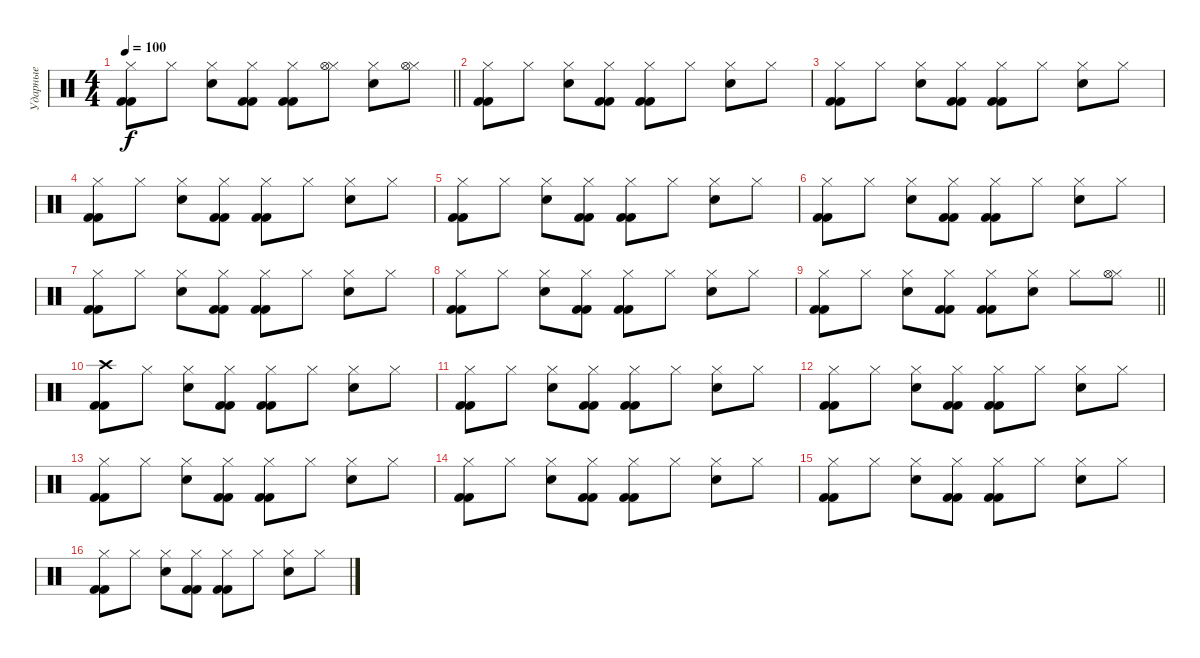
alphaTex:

\track ("Ударные" "Ударные") {instrument percussion}
\staff {score}
\articulation defaults
\ts (4 4)
\tempo 100
\clef neutral
\barLineRight lightlight
\ks c
("Hi-Hat (closed)" "Kick (hit) 2" "Kick (hit) 2").8{dy f} "Hi-Hat (closed)".8 ("Hi-Hat (closed)" "Snare (hit) 2").8 ("Hi-Hat (closed)" "Kick (hit) 2" "Kick (hit) 2").8 ("Hi-Hat (closed)" "Kick (hit) 2" "Kick (hit) 2").8 ("Hi-Hat (closed)" "Hi-Hat (open)").8 ("Hi-Hat (closed)" "Snare (hit) 2").8 ("Hi-Hat (closed)" "Hi-Hat (open)").8 |
("Hi-Hat (closed)" "Kick (hit) 2" "Kick (hit) 2").8 "Hi-Hat (closed)".8 ("Hi-Hat (closed)" "Snare (hit) 2").8 ("Hi-Hat (closed)" "Kick (hit) 2" "Kick (hit) 2").8 ("Hi-Hat (closed)" "Kick (hit) 2" "Kick (hit) 2").8 "Hi-Hat (closed)".8 ("Hi-Hat (closed)" "Snare (hit) 2").8 "Hi-Hat (closed)".8 |
("Hi-Hat (closed)" "Kick (hit) 2" "Kick (hit) 2").8 "Hi-Hat (closed)".8 ("Hi-Hat (closed)" "Snare (hit) 2").8 ("Hi-Hat (closed)" "Kick (hit) 2" "Kick (hit) 2").8 ("Hi-Hat (closed)" "Kick (hit) 2" "Kick (hit) 2").8 "Hi-Hat (closed)".8 ("Hi-Hat (closed)" "Snare (hit) 2").8 "Hi-Hat (closed)".8 |
("Hi-Hat (closed)" "Kick (hit) 2" "Kick (hit) 2").8 "Hi-Hat (closed)".8 ("Hi-Hat (closed)" "Snare (hit) 2").8 ("Hi-Hat (closed)" "Kick (hit) 2" "Kick (hit) 2").8 ("Hi-Hat (closed)" "Kick (hit) 2" "Kick (hit) 2").8 "Hi-Hat (closed)".8 ("Hi-Hat (closed)" "Snare (hit) 2").8 "Hi-Hat (closed)".8 |
("Hi-Hat (closed)" "Kick (hit) 2" "Kick (hit) 2").8 "Hi-Hat (closed)".8 ("Hi-Hat (closed)" "Snare (hit) 2").8 ("Hi-Hat (closed)" "Kick (hit) 2" "Kick (hit) 2").8 ("Hi-Hat (closed)" "Kick (hit) 2" "Kick (hit) 2").8 "Hi-Hat (closed)".8 ("Hi-Hat (closed)" "Snare (hit) 2").8 "Hi-Hat (closed)".8 |
("Hi-Hat (closed)" "Kick (hit) 2" "Kick (hit) 2").8 "Hi-Hat (closed)".8 ("Hi-Hat (closed)" "Snare (hit) 2").8 ("Hi-Hat (closed)" "Kick (hit) 2" "Kick (hit) 2").8 ("Hi-Hat (closed)" "Kick (hit) 2" "Kick (hit) 2").8 "Hi-Hat (closed)".8 ("Hi-Hat (closed)" "Snare (hit) 2").8 "Hi-Hat (closed)".8 |
("Hi-Hat (closed)" "Kick (hit) 2" "Kick (hit) 2").8 "Hi-Hat (closed)".8 ("Hi-Hat (closed)" "Snare (hit) 2").8 ("Hi-Hat (closed)" "Kick (hit) 2" "Kick (hit) 2").8 ("Hi-Hat (closed)" "Kick (hit) 2" "Kick (hit) 2").8 "Hi-Hat (closed)".8 ("Hi-Hat (closed)" "Snare (hit) 2").8 "Hi-Hat (closed)".8 |
("Hi-Hat (closed)" "Kick (hit) 2" "Kick (hit) 2").8 "Hi-Hat (closed)".8 ("Hi-Hat (closed)" "Snare (hit) 2").8 ("Hi-Hat (closed)" "Kick (hit) 2" "Kick (hit) 2").8 ("Hi-Hat (closed)" "Kick (hit) 2" "Kick (hit) 2").8 "Hi-Hat (closed)".8 ("Hi-Hat (closed)" "Snare (hit) 2").8 "Hi-Hat (closed)".8 |
\barLineRight lightlight
("Hi-Hat (closed)" "Kick (hit) 2" "Kick (hit) 2").8 "Hi-Hat (closed)".8 ("Hi-Hat (closed)" "Snare (hit) 2").8 ("Hi-Hat (closed)" "Kick (hit) 2" "Kick (hit) 2").8 ("Hi-Hat (closed)" "Kick (hit) 2" "Kick (hit) 2").8 ("Hi-Hat (closed)" "Snare (hit) 2").8 "Hi-Hat (closed)".8 ("Hi-Hat (closed)" "Hi-Hat (open)").8 |
\section ("" "")
("Crash high (hit)" "Kick (hit) 2" "Kick (hit) 2").8 "Hi-Hat (closed)".8 ("Hi-Hat (closed)" "Snare (hit) 2").8 ("Hi-Hat (closed)" "Kick (hit) 2" "Kick (hit) 2").8 ("Hi-Hat (closed)" "Kick (hit) 2" "Kick (hit) 2").8 "Hi-Hat (closed)".8 ("Hi-Hat (closed)" "Snare (hit) 2").8 "Hi-Hat (closed)".8 |
("Hi-Hat (closed)" "Kick (hit) 2" "Kick (hit) 2").8 "Hi-Hat (closed)".8 ("Hi-Hat (closed)" "Snare (hit) 2").8 ("Hi-Hat (closed)" "Kick (hit) 2" "Kick (hit) 2").8 ("Hi-Hat (closed)" "Kick (hit) 2" "Kick (hit) 2").8 "Hi-Hat (closed)".8 ("Hi-Hat (closed)" "Snare (hit) 2").8 "Hi-Hat (closed)".8 |
("Hi-Hat (closed)" "Kick (hit) 2" "Kick (hit) 2").8 "Hi-Hat (closed)".8 ("Hi-Hat (closed)" "Snare (hit) 2").8 ("Hi-Hat (closed)" "Kick (hit) 2" "Kick (hit) 2").8 ("Hi-Hat (closed)" "Kick (hit) 2" "Kick (hit) 2").8 "Hi-Hat (closed)".8 ("Hi-Hat (closed)" "Snare (hit) 2").8 "Hi-Hat (closed)".8 |
("Hi-Hat (closed)" "Kick (hit) 2" "Kick (hit) 2").8 "Hi-Hat (closed)".8 ("Hi-Hat (closed)" "Snare (hit) 2").8 ("Hi-Hat (closed)" "Kick (hit) 2" "Kick (hit) 2").8 ("Hi-Hat (closed)" "Kick (hit) 2" "Kick (hit) 2").8 "Hi-Hat (closed)".8 ("Hi-Hat (closed)" "Snare (hit) 2").8 "Hi-Hat (closed)".8 |
("Hi-Hat (closed)" "Kick (hit) 2" "Kick (hit) 2").8 "Hi-Hat (closed)".8 ("Hi-Hat (closed)" "Snare (hit) 2").8 ("Hi-Hat (closed)" "Kick (hit) 2" "Kick (hit) 2").8 ("Hi-Hat (closed)" "Kick (hit) 2" "Kick (hit) 2").8 "Hi-Hat (closed)".8 ("Hi-Hat (closed)" "Snare (hit) 2").8 "Hi-Hat (closed)".8 |
("Hi-Hat (closed)" "Kick (hit) 2" "Kick (hit) 2").8 "Hi-Hat (closed)".8 ("Hi-Hat (closed)" "Snare (hit) 2").8 ("Hi-Hat (closed)" "Kick (hit) 2" "Kick (hit) 2").8 ("Hi-Hat (closed)" "Kick (hit) 2" "Kick (hit) 2").8 "Hi-Hat (closed)".8 ("Hi-Hat (closed)" "Snare (hit) 2").8 "Hi-Hat (closed)".8 |
("Hi-Hat (closed)" "Kick (hit) 2" "Kick (hit) 2").8 "Hi-Hat (closed)".8 ("Hi-Hat (closed)" "Snare (hit) 2").8 ("Hi-Hat (closed)" "Kick (hit) 2" "Kick (hit) 2").8 ("Hi-Hat (closed)" "Kick (hit) 2" "Kick (hit) 2").8 "Hi-Hat (closed)".8 ("Hi-Hat (closed)" "Snare (hit) 2").8 "Hi-Hat (closed)".8
